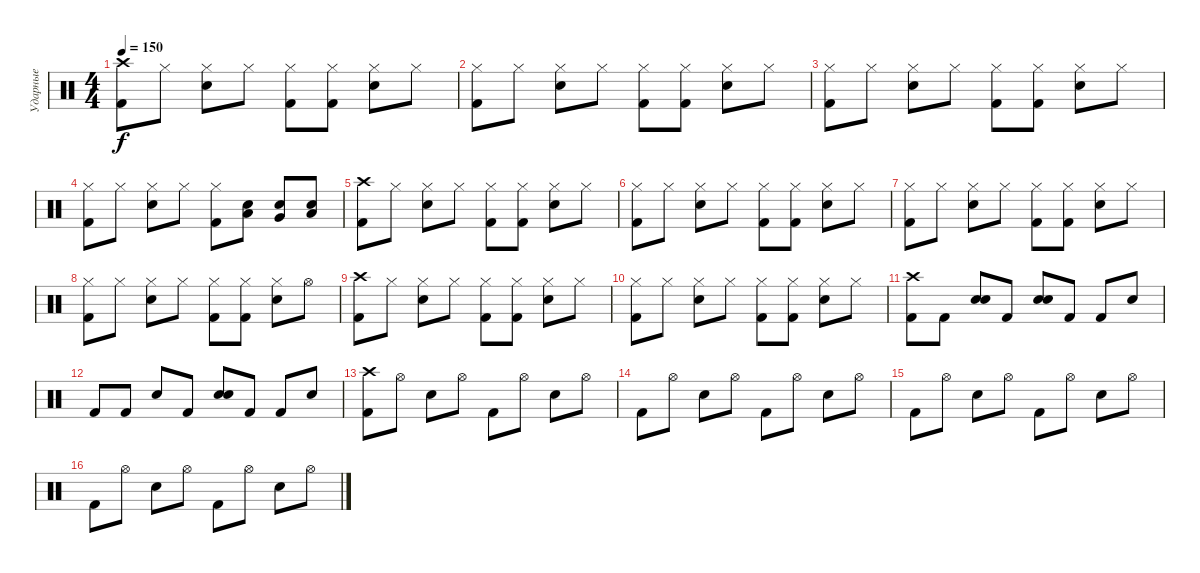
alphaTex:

\track ("Ударные" "Ударные") {instrument percussion}
\staff {score}
\articulation defaults
\ts (4 4)
\tempo 150
\clef neutral
\ks c
("Crash high (hit)" "Kick (hit) 2").8{dy f} "Hi-Hat (closed)".8 ("Hi-Hat (closed)" "Electric Snare (hit)").8 "Hi-Hat (closed)".8 ("Hi-Hat (closed)" "Kick (hit) 2").8 ("Hi-Hat (closed)" "Kick (hit) 2").8 ("Hi-Hat (closed)" "Electric Snare (hit)").8 "Hi-Hat (closed)".8 |
("Hi-Hat (closed)" "Kick (hit) 2").8 "Hi-Hat (closed)".8 ("Hi-Hat (closed)" "Electric Snare (hit)").8 "Hi-Hat (closed)".8 ("Hi-Hat (closed)" "Kick (hit) 2").8 ("Hi-Hat (closed)" "Kick (hit) 2").8 ("Hi-Hat (closed)" "Electric Snare (hit)").8 "Hi-Hat (closed)".8 |
("Hi-Hat (closed)" "Kick (hit) 2").8 "Hi-Hat (closed)".8 ("Hi-Hat (closed)" "Electric Snare (hit)").8 "Hi-Hat (closed)".8 ("Hi-Hat (closed)" "Kick (hit) 2").8 ("Hi-Hat (closed)" "Kick (hit) 2").8 ("Hi-Hat (closed)" "Electric Snare (hit)").8 "Hi-Hat (closed)".8 |
("Hi-Hat (closed)" "Kick (hit) 2").8 "Hi-Hat (closed)".8 ("Hi-Hat (closed)" "Electric Snare (hit)").8 "Hi-Hat (closed)".8 ("Hi-Hat (closed)" "Kick (hit) 2").8 ("Low Tom (hit)" "Electric Snare (hit)").8 ("Very Low Tom (hit)" "Electric Snare (hit)").8 ("Low Floor Tom (hit)" "Electric Snare (hit)").8 |
("Crash high (hit)" "Kick (hit) 2").8 "Hi-Hat (closed)".8 ("Hi-Hat (closed)" "Electric Snare (hit)").8 "Hi-Hat (closed)".8 ("Hi-Hat (closed)" "Kick (hit) 2").8 ("Hi-Hat (closed)" "Kick (hit) 2").8 ("Hi-Hat (closed)" "Electric Snare (hit)").8 "Hi-Hat (closed)".8 |
("Hi-Hat (closed)" "Kick (hit) 2").8 "Hi-Hat (closed)".8 ("Hi-Hat (closed)" "Electric Snare (hit)").8 "Hi-Hat (closed)".8 ("Hi-Hat (closed)" "Kick (hit) 2").8 ("Hi-Hat (closed)" "Kick (hit) 2").8 ("Hi-Hat (closed)" "Electric Snare (hit)").8 "Hi-Hat (closed)".8 |
("Hi-Hat (closed)" "Kick (hit) 2").8 "Hi-Hat (closed)".8 ("Hi-Hat (closed)" "Electric Snare (hit)").8 "Hi-Hat (closed)".8 ("Hi-Hat (closed)" "Kick (hit) 2").8 ("Hi-Hat (closed)" "Kick (hit) 2").8 ("Hi-Hat (closed)" "Electric Snare (hit)").8 "Hi-Hat (closed)".8 |
("Hi-Hat (closed)" "Kick (hit) 2").8 "Hi-Hat (closed)".8 ("Hi-Hat (closed)" "Electric Snare (hit)").8 "Hi-Hat (closed)".8 ("Hi-Hat (closed)" "Kick (hit) 2").8 ("Hi-Hat (closed)" "Kick (hit) 2").8 ("Hi-Hat (closed)" "Electric Snare (hit)").8 "Hi-Hat (open)".8 |
("Crash high (hit)" "Kick (hit) 2").8 "Hi-Hat (closed)".8 ("Hi-Hat (closed)" "Electric Snare (hit)").8 "Hi-Hat (closed)".8 ("Hi-Hat (closed)" "Kick (hit) 2").8 ("Hi-Hat (closed)" "Kick (hit) 2").8 ("Hi-Hat (closed)" "Electric Snare (hit)").8 "Hi-Hat (closed)".8 |
("Hi-Hat (closed)" "Kick (hit) 2").8 "Hi-Hat (closed)".8 ("Hi-Hat (closed)" "Electric Snare (hit)").8 "Hi-Hat (closed)".8 ("Hi-Hat (closed)" "Kick (hit) 2").8 ("Hi-Hat (closed)" "Kick (hit) 2").8 ("Hi-Hat (closed)" "Electric Snare (hit)").8 "Hi-Hat (closed)".8 |
("Crash high (hit)" "Kick (hit) 2").8 "Kick (hit) 2".8 ("Electric Snare (hit)" "Snare (hit) 2").8 "Kick (hit) 2".8 ("Electric Snare (hit)" "Snare (hit) 2").8 "Kick (hit) 2".8 "Kick (hit) 2".8 "Electric Snare (hit)".8 |
"Kick (hit) 2".8 "Kick (hit) 2".8 "Electric Snare (hit)".8 "Kick (hit) 2".8 ("Electric Snare (hit)" "Snare (hit) 2").8 "Kick (hit) 2".8 "Kick (hit) 2".8 "Electric Snare (hit)".8 |
("Crash high (hit)" "Kick (hit) 2").8 "Hi-Hat (open)".8 "Electric Snare (hit)".8 "Hi-Hat (open)".8 "Kick (hit) 2".8 "Hi-Hat (open)".8 "Electric Snare (hit)".8 "Hi-Hat (open)".8 |
"Kick (hit) 2".8 "Hi-Hat (open)".8 "Electric Snare (hit)".8 "Hi-Hat (open)".8 "Kick (hit) 2".8 "Hi-Hat (open)".8 "Electric Snare (hit)".8 "Hi-Hat (open)".8 |
"Kick (hit) 2".8 "Hi-Hat (open)".8 "Electric Snare (hit)".8 "Hi-Hat (open)".8 "Kick (hit) 2".8 "Hi-Hat (open)".8 "Electric Snare (hit)".8 "Hi-Hat (open)".8 |
"Kick (hit) 2".8 "Hi-Hat (open)".8 "Electric Snare (hit)".8 "Hi-Hat (open)".8 "Kick (hit) 2".8 "Hi-Hat (open)".8 "Electric Snare (hit)".8 "Hi-Hat (open)".8
